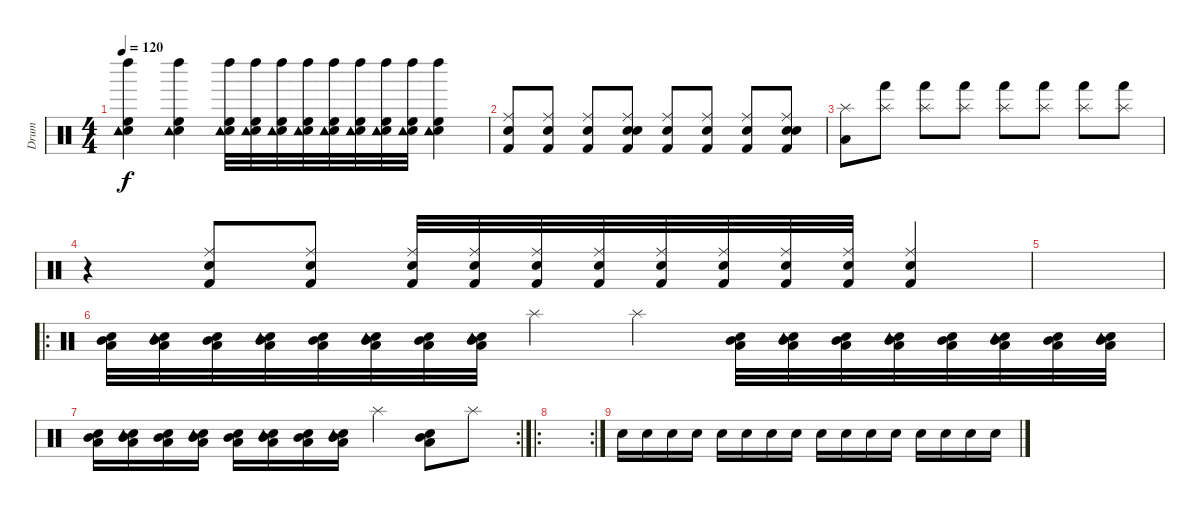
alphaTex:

\track ("Drum" "Drum") {instrument percussion}
\staff {score}
\articulation defaults
\ts (4 4)
\tempo 120
\clef neutral
\ks c
("Electric Snare (hit)" "High Floor Tom (hit)" "Tambourine (hit)" "Left Maraca (hit)").4{dy f} ("Electric Snare (hit)" "High Floor Tom (hit)" "Tambourine (hit)" "Left Maraca (hit)").4 ("Electric Snare (hit)" "High Floor Tom (hit)" "Tambourine (hit)" "Left Maraca (hit)").32 ("Electric Snare (hit)" "High Floor Tom (hit)" "Tambourine (hit)" "Left Maraca (hit)").32 ("Electric Snare (hit)" "High Floor Tom (hit)" "Tambourine (hit)" "Left Maraca (hit)").32 ("Electric Snare (hit)" "High Floor Tom (hit)" "Tambourine (hit)" "Left Maraca (hit)").32 ("Electric Snare (hit)" "High Floor Tom (hit)" "Tambourine (hit)" "Left Maraca (hit)").32 ("Electric Snare (hit)" "High Floor Tom (hit)" "Tambourine (hit)" "Left Maraca (hit)").32 ("Electric Snare (hit)" "High Floor Tom (hit)" "Tambourine (hit)" "Left Maraca (hit)").32 ("Electric Snare (hit)" "High Floor Tom (hit)" "Tambourine (hit)" "Left Maraca (hit)").32 ("Electric Snare (hit)" "High Floor Tom (hit)" "Tambourine (hit)" "Left Maraca (hit)").4 |
("Electric Snare (hit)" "Ride (middle)" "Kick (hit) 2").8 ("Electric Snare (hit)" "Ride (middle)" "Kick (hit) 2").8 ("Electric Snare (hit)" "Ride (middle)" "Kick (hit) 2").8 ("Electric Snare (hit)" "Ride (middle)" "Snare (hit) 2" "Kick (hit) 2").8 ("Electric Snare (hit)" "Ride (middle)" "Kick (hit) 2").8 ("Electric Snare (hit)" "Ride (middle)" "Kick (hit) 2").8 ("Electric Snare (hit)" "Ride (middle)" "Kick (hit) 2").8 ("Electric Snare (hit)" "Ride (middle)" "Snare (hit) 2" "Kick (hit) 2").8 |
("Low Tom (hit)" "Splash (hit)").8 ("Hand (hit)" "Splash (hit)").8 ("Hand (hit)" "Splash (hit)").8 ("Hand (hit)" "Splash (hit)").8 ("Hand (hit)" "Splash (hit)").8 ("Hand (hit)" "Splash (hit)").8 ("Hand (hit)" "Splash (hit)").8 ("Hand (hit)" "Splash (hit)").8 |
r.4 ("Electric Snare (hit)" "Ride (middle)" "Kick (hit) 2").8 ("Electric Snare (hit)" "Ride (middle)" "Kick (hit) 2").8 ("Electric Snare (hit)" "Ride (middle)" "Kick (hit) 2").32 ("Electric Snare (hit)" "Ride (middle)" "Kick (hit) 2").32 ("Electric Snare (hit)" "Ride (middle)" "Kick (hit) 2").32 ("Electric Snare (hit)" "Ride (middle)" "Kick (hit) 2").32 ("Electric Snare (hit)" "Ride (middle)" "Kick (hit) 2").32 ("Electric Snare (hit)" "Ride (middle)" "Kick (hit) 2").32 ("Electric Snare (hit)" "Ride (middle)" "Kick (hit) 2").32 ("Electric Snare (hit)" "Ride (middle)" "Kick (hit) 2").32 ("Electric Snare (hit)" "Ride (middle)" "Kick (hit) 2").4 |
|
\ro
("Electric Snare (hit)" "Low Tom (hit)" "Mid Tom (hit)").32 ("Electric Snare (hit)" "Low Tom (hit)" "Tambourine (hit)" "Mid Tom (hit)").32 ("Electric Snare (hit)" "Low Tom (hit)" "Mid Tom (hit)").32 ("Electric Snare (hit)" "Low Tom (hit)" "Tambourine (hit)" "Mid Tom (hit)").32 ("Electric Snare (hit)" "Low Tom (hit)" "Mid Tom (hit)").32 ("Electric Snare (hit)" "Low Tom (hit)" "Tambourine (hit)" "Mid Tom (hit)").32 ("Electric Snare (hit)" "Low Tom (hit)" "Mid Tom (hit)").32 ("Electric Snare (hit)" "Low Tom (hit)" "Tambourine (hit)" "Mid Tom (hit)").32 "Splash (hit)".4 "Splash (hit)".4 ("Electric Snare (hit)" "Low Tom (hit)" "Mid Tom (hit)").32 ("Electric Snare (hit)" "Low Tom (hit)" "Tambourine (hit)" "Mid Tom (hit)").32 ("Electric Snare (hit)" "Low Tom (hit)" "Mid Tom (hit)").32 ("Electric Snare (hit)" "Low Tom (hit)" "Tambourine (hit)" "Mid Tom (hit)").32 ("Electric Snare (hit)" "Low Tom (hit)" "Mid Tom (hit)").32 ("Electric Snare (hit)" "Low Tom (hit)" "Tambourine (hit)" "Mid Tom (hit)").32 ("Electric Snare (hit)" "Low Tom (hit)" "Mid Tom (hit)").32 ("Electric Snare (hit)" "Low Tom (hit)" "Tambourine (hit)" "Mid Tom (hit)").32 |
\rc 2
("Electric Snare (hit)" "Low Tom (hit)" "Mid Tom (hit)").16 ("Electric Snare (hit)" "Low Tom (hit)" "Tambourine (hit)" "Mid Tom (hit)").16 ("Electric Snare (hit)" "Low Tom (hit)" "Mid Tom (hit)").16 ("Electric Snare (hit)" "Low Tom (hit)" "Tambourine (hit)" "Mid Tom (hit)").16 ("Electric Snare (hit)" "Low Tom (hit)" "Mid Tom (hit)").16 ("Electric Snare (hit)" "Low Tom (hit)" "Tambourine (hit)" "Mid Tom (hit)").16 ("Electric Snare (hit)" "Low Tom (hit)" "Mid Tom (hit)").16 ("Electric Snare (hit)" "Low Tom (hit)" "Tambourine (hit)" "Mid Tom (hit)").16 "Splash (hit)".4 ("Electric Snare (hit)" "Low Tom (hit)" "Mid Tom (hit)").8 "Splash (hit)".8 |
\ro
\rc 2
|
"Electric Snare (hit)".16 "Electric Snare (hit)".16 "Electric Snare (hit)".16 "Electric Snare (hit)".16 "Electric Snare (hit)".16 "Electric Snare (hit)".16 "Electric Snare (hit)".16 "Electric Snare (hit)".16 "Electric Snare (hit)".16 "Electric Snare (hit)".16 "Electric Snare (hit)".16 "Electric Snare (hit)".16 "Electric Snare (hit)".16 "Electric Snare (hit)".16 "Electric Snare (hit)".16 "Electric Snare (hit)".16
